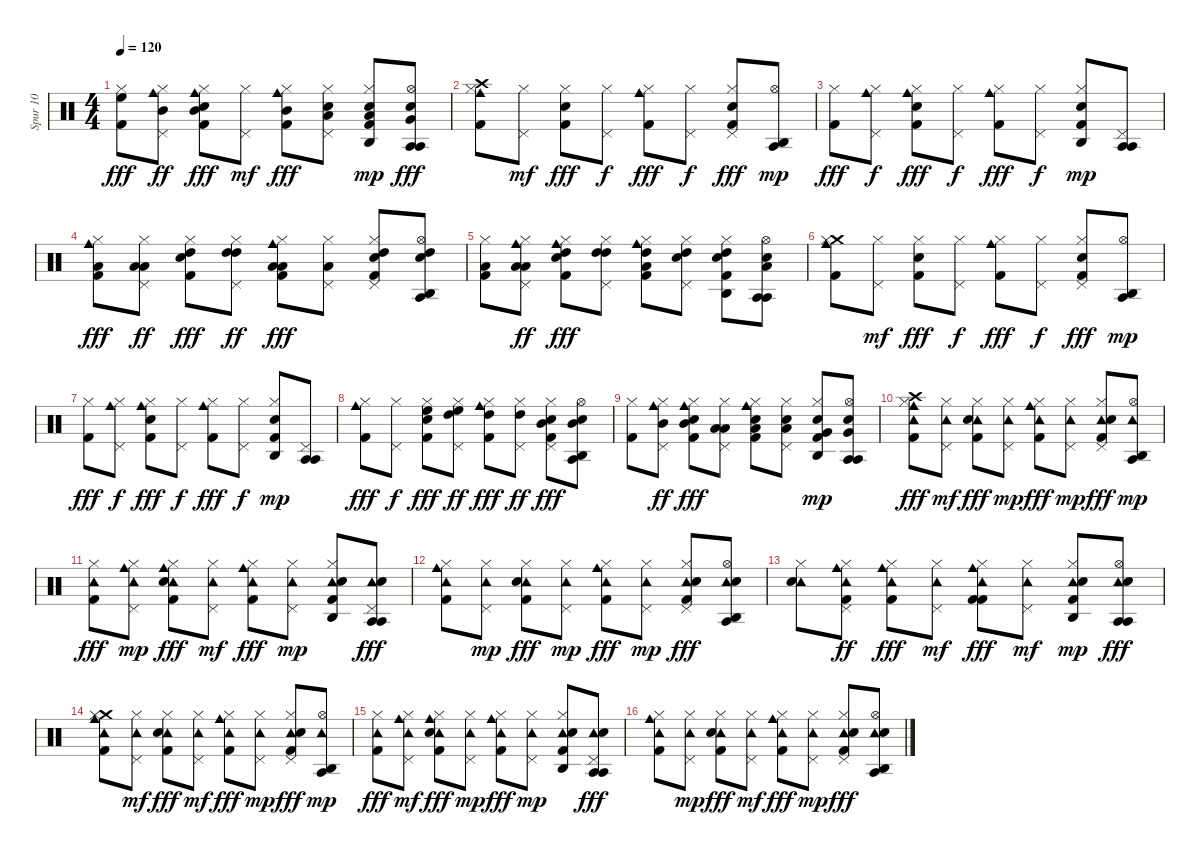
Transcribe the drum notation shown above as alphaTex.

\track ("Spur 10" "Spur 10") {instrument percussion}
\staff {score}
\articulation defaults
\ts (4 4)
\tempo 120
\clef neutral
\ks c
("High Floor Tom (hit)" "Kick (hit) 2" "Hi-Hat (closed)").8{dy fff} ("Cowbell medium (hit)" "Hi-Hat (closed)" "Mid Tom (hit)" "Pedal Hi-Hat (hit)").8{dy ff} ("Electric Snare (hit)" "Kick (hit) 2" "Hi-Hat (closed)" "Cowbell medium (hit)" "Mid Tom (hit)").8{dy fff} ("Hi-Hat (closed)" "Pedal Hi-Hat (hit)").8{dy mf} ("Cowbell medium (hit)" "Mid Tom (hit)" "Hi-Hat (closed)" "Kick (hit) 2").8{dy fff} ("Hi-Hat (closed)" "Low Tom (hit)" "Pedal Hi-Hat (hit)" "Electric Snare (hit)").8 ("Low Tom (hit)" "Hi-Hat (closed)" "Kick (hit) 2" "Electric Snare (hit)" "Agogo high (hit)").8{dy mp} ("Agogo tow (hit)" "Hi-Hat (open)" "Very Low Tom (hit)" "Agogo tow (hit)" "Electric Snare (hit)").8{dy fff} |
("Cowbell medium (hit)" "Crash high (hit)" "Hi-Hat (closed)" "Kick (hit) 2").8 ("Hi-Hat (closed)" "Pedal Hi-Hat (hit)").8{dy mf} ("Electric Snare (hit)" "Kick (hit) 2" "Hi-Hat (closed)").8{dy fff} ("Hi-Hat (closed)" "Pedal Hi-Hat (hit)").8{dy f} ("Cowbell medium (hit)" "Kick (hit) 2" "Hi-Hat (closed)").8{dy fff} ("Hi-Hat (closed)" "Pedal Hi-Hat (hit)").8{dy f} ("Kick (hit) 2" "Electric Snare (hit)" "Hi-Hat (closed)" "Pedal Hi-Hat (hit)").8{dy fff} ("Agogo high (hit)" "Hi-Hat (open)" "Agogo tow (hit)").8{dy mp} |
("Kick (hit) 2" "Hi-Hat (closed)").8{dy fff} ("Cowbell medium (hit)" "Hi-Hat (closed)" "Pedal Hi-Hat (hit)").8{dy f} ("Hi-Hat (closed)" "Kick (hit) 2" "Electric Snare (hit)" "Cowbell medium (hit)").8{dy fff} ("Hi-Hat (closed)" "Pedal Hi-Hat (hit)").8{dy f} ("Cowbell medium (hit)" "Kick (hit) 2" "Hi-Hat (closed)").8{dy fff} ("Hi-Hat (closed)" "Pedal Hi-Hat (hit)").8{dy f} ("Electric Snare (hit)" "Kick (hit) 2" "Hi-Hat (closed)" "Agogo high (hit)").8{dy mp} ("Agogo tow (hit)" "Pedal Hi-Hat (hit)" "Agogo tow (hit)").8 |
("Cowbell medium (hit)" "Kick (hit) 2" "Hi-Hat (closed)" "Low Tom (hit)").8{dy fff} ("Hi-Hat (closed)" "Low Tom (hit)" "Low Tom (hit)" "Pedal Hi-Hat (hit)").8{dy ff} ("Electric Snare (hit)" "Kick (hit) 2" "Hi-Hat (closed)" "High Tom (hit)").8{dy fff} ("High Tom (hit)" "Hi-Hat (closed)" "High Tom (hit)" "Pedal Hi-Hat (hit)").8{dy ff} ("Cowbell medium (hit)" "Low Tom (hit)" "Hi-Hat (closed)" "Kick (hit) 2" "Low Tom (hit)").8{dy fff} ("Hi-Hat (closed)" "Low Tom (hit)" "Pedal Hi-Hat (hit)").8 ("High Tom (hit)" "Kick (hit) 2" "Electric Snare (hit)" "Hi-Hat (closed)" "Pedal Hi-Hat (hit)").8 ("Agogo high (hit)" "High Tom (hit)" "Hi-Hat (open)" "Agogo tow (hit)" "Electric Snare (hit)").8 |
("Low Tom (hit)" "Kick (hit) 2" "Hi-Hat (closed)").8 ("Cowbell medium (hit)" "Low Tom (hit)" "Hi-Hat (closed)" "Low Tom (hit)" "Pedal Hi-Hat (hit)").8{dy ff} ("Electric Snare (hit)" "Kick (hit) 2" "Hi-Hat (closed)" "High Tom (hit)" "Cowbell medium (hit)").8{dy fff} ("Hi-Hat (closed)" "High Tom (hit)" "High Tom (hit)" "Pedal Hi-Hat (hit)").8 ("Cowbell medium (hit)" "Low Tom (hit)" "Hi-Hat (closed)" "Kick (hit) 2" "High Tom (hit)").8 ("Hi-Hat (closed)" "Pedal Hi-Hat (hit)" "Electric Snare (hit)" "High Tom (hit)").8 ("Hi-Hat (closed)" "Kick (hit) 2" "Electric Snare (hit)" "Agogo high (hit)" "High Tom (hit)").8 ("Agogo tow (hit)" "Low Tom (hit)" "Hi-Hat (open)" "Agogo tow (hit)" "Electric Snare (hit)").8 |
("Cowbell medium (hit)" "Crash medium (hit)" "Hi-Hat (closed)" "Kick (hit) 2").8 ("Hi-Hat (closed)" "Pedal Hi-Hat (hit)").8{dy mf} ("Electric Snare (hit)" "Kick (hit) 2" "Hi-Hat (closed)").8{dy fff} ("Hi-Hat (closed)" "Pedal Hi-Hat (hit)").8{dy f} ("Cowbell medium (hit)" "Kick (hit) 2" "Hi-Hat (closed)").8{dy fff} ("Hi-Hat (closed)" "Pedal Hi-Hat (hit)").8{dy f} ("Kick (hit) 2" "Electric Snare (hit)" "Hi-Hat (closed)" "Pedal Hi-Hat (hit)").8{dy fff} ("Agogo high (hit)" "Hi-Hat (open)" "Agogo tow (hit)").8{dy mp} |
("Kick (hit) 2" "Hi-Hat (closed)").8{dy fff} ("Cowbell medium (hit)" "Hi-Hat (closed)" "Pedal Hi-Hat (hit)").8{dy f} ("Hi-Hat (closed)" "Kick (hit) 2" "Electric Snare (hit)" "Cowbell medium (hit)").8{dy fff} ("Hi-Hat (closed)" "Pedal Hi-Hat (hit)").8{dy f} ("Cowbell medium (hit)" "Kick (hit) 2" "Hi-Hat (closed)").8{dy fff} ("Hi-Hat (closed)" "Pedal Hi-Hat (hit)").8{dy f} ("Electric Snare (hit)" "Kick (hit) 2" "Hi-Hat (closed)" "Agogo high (hit)").8{dy mp} ("Agogo tow (hit)" "Pedal Hi-Hat (hit)" "Agogo tow (hit)").8 |
("Cowbell medium (hit)" "Kick (hit) 2" "Hi-Hat (closed)").8{dy fff} ("Hi-Hat (closed)" "Pedal Hi-Hat (hit)").8{dy f} ("Electric Snare (hit)" "Kick (hit) 2" "Hi-Hat (closed)" "High Floor Tom (hit)").8{dy fff} ("Hi-Hat (closed)" "High Floor Tom (hit)" "Pedal Hi-Hat (hit)" "High Tom (hit)").8{dy ff} ("Cowbell medium (hit)" "Hi-Hat (closed)" "Kick (hit) 2" "High Tom (hit)").8{dy fff} ("Hi-Hat (closed)" "High Tom (hit)" "Pedal Hi-Hat (hit)").8{dy ff} ("Mid Tom (hit)" "Kick (hit) 2" "Electric Snare (hit)" "Hi-Hat (closed)" "Pedal Hi-Hat (hit)").8{dy fff} ("Agogo high (hit)" "Mid Tom (hit)" "Hi-Hat (open)" "Agogo tow (hit)" "Electric Snare (hit)").8 |
("Kick (hit) 2" "Hi-Hat (closed)").8 ("Cowbell medium (hit)" "Mid Tom (hit)" "Hi-Hat (closed)" "Pedal Hi-Hat (hit)").8{dy ff} ("Electric Snare (hit)" "Kick (hit) 2" "Hi-Hat (closed)" "Mid Tom (hit)" "Cowbell medium (hit)").8{dy fff} ("Hi-Hat (closed)" "Low Tom (hit)" "Pedal Hi-Hat (hit)" "Low Tom (hit)").8 ("Cowbell medium (hit)" "Electric Snare (hit)" "Hi-Hat (closed)" "Kick (hit) 2" "Low Tom (hit)").8 ("Hi-Hat (closed)" "Low Tom (hit)" "Pedal Hi-Hat (hit)" "Electric Snare (hit)").8 ("Very Low Tom (hit)" "Hi-Hat (closed)" "Kick (hit) 2" "Electric Snare (hit)" "Agogo high (hit)").8{dy mp} ("Agogo tow (hit)" "Very Low Tom (hit)" "Electric Snare (hit)" "Hi-Hat (open)" "Agogo tow (hit)").8 |
("Tambourine (hit)" "Cowbell medium (hit)" "Crash high (hit)" "Hi-Hat (closed)" "Kick (hit) 2").8{dy fff} ("Tambourine (hit)" "Hi-Hat (closed)" "Pedal Hi-Hat (hit)").8{dy mf} ("Tambourine (hit)" "Electric Snare (hit)" "Kick (hit) 2" "Hi-Hat (closed)").8{dy fff} ("Tambourine (hit)" "Hi-Hat (closed)" "Pedal Hi-Hat (hit)").8{dy mp} ("Tambourine (hit)" "Cowbell medium (hit)" "Kick (hit) 2" "Hi-Hat (closed)").8{dy fff} ("Tambourine (hit)" "Hi-Hat (closed)" "Pedal Hi-Hat (hit)").8{dy mp} ("Tambourine (hit)" "Kick (hit) 2" "Electric Snare (hit)" "Hi-Hat (closed)" "Pedal Hi-Hat (hit)").8{dy fff} ("Agogo high (hit)" "Tambourine (hit)" "Hi-Hat (open)" "Agogo tow (hit)").8{dy mp} |
("Tambourine (hit)" "Kick (hit) 2" "Hi-Hat (closed)").8{dy fff} ("Cowbell medium (hit)" "Tambourine (hit)" "Hi-Hat (closed)" "Pedal Hi-Hat (hit)").8{dy mp} ("Tambourine (hit)" "Hi-Hat (closed)" "Kick (hit) 2" "Electric Snare (hit)" "Cowbell medium (hit)").8{dy fff} ("Tambourine (hit)" "Hi-Hat (closed)" "Pedal Hi-Hat (hit)").8{dy mf} ("Cowbell medium (hit)" "Tambourine (hit)" "Kick (hit) 2" "Hi-Hat (closed)").8{dy fff} ("Tambourine (hit)" "Hi-Hat (closed)" "Pedal Hi-Hat (hit)").8{dy mp} ("Tambourine (hit)" "Electric Snare (hit)" "Kick (hit) 2" "Hi-Hat (closed)" "Agogo high (hit)").8 ("Agogo tow (hit)" "Tambourine (hit)" "Pedal Hi-Hat (hit)" "Agogo tow (hit)" "Electric Snare (hit)").8{dy fff} |
("Cowbell medium (hit)" "Tambourine (hit)" "Kick (hit) 2" "Hi-Hat (closed)").8 ("Tambourine (hit)" "Hi-Hat (closed)" "Pedal Hi-Hat (hit)").8{dy mp} ("Tambourine (hit)" "Electric Snare (hit)" "Kick (hit) 2" "Hi-Hat (closed)").8{dy fff} ("Tambourine (hit)" "Hi-Hat (closed)" "Pedal Hi-Hat (hit)").8{dy mp} ("Cowbell medium (hit)" "Tambourine (hit)" "Hi-Hat (closed)" "Kick (hit) 2").8{dy fff} ("Tambourine (hit)" "Hi-Hat (closed)" "Pedal Hi-Hat (hit)").8{dy mp} ("Tambourine (hit)" "Kick (hit) 2" "Electric Snare (hit)" "Hi-Hat (closed)" "Pedal Hi-Hat (hit)").8{dy fff} ("Agogo high (hit)" "Tambourine (hit)" "Hi-Hat (open)" "Agogo tow (hit)" "Electric Snare (hit)").8 |
("Tambourine (hit)" "Electric Snare (hit)" "Hi-Hat (closed)").8 ("Tambourine (hit)" "Cowbell medium (hit)" "Hi-Hat (closed)" "Kick (hit) 2" "Pedal Hi-Hat (hit)").8{dy ff} ("Tambourine (hit)" "Hi-Hat (closed)" "Cowbell medium (hit)" "Kick (hit) 2").8{dy fff} ("Tambourine (hit)" "Hi-Hat (closed)" "Pedal Hi-Hat (hit)").8{dy mf} ("Tambourine (hit)" "Cowbell medium (hit)" "Kick (hit) 2" "Hi-Hat (closed)" "Kick (hit) 2").8{dy fff} ("Tambourine (hit)" "Hi-Hat (closed)" "Pedal Hi-Hat (hit)").8{dy mf} ("Tambourine (hit)" "Hi-Hat (closed)" "Kick (hit) 2" "Electric Snare (hit)" "Agogo high (hit)").8{dy mp} ("Agogo tow (hit)" "Tambourine (hit)" "Hi-Hat (open)" "Agogo tow (hit)" "Electric Snare (hit)").8{dy fff} |
("Tambourine (hit)" "Cowbell medium (hit)" "Crash medium (hit)" "Hi-Hat (closed)" "Kick (hit) 2").8 ("Tambourine (hit)" "Hi-Hat (closed)" "Pedal Hi-Hat (hit)").8{dy mf} ("Tambourine (hit)" "Electric Snare (hit)" "Kick (hit) 2" "Hi-Hat (closed)").8{dy fff} ("Tambourine (hit)" "Hi-Hat (closed)" "Pedal Hi-Hat (hit)").8{dy mf} ("Tambourine (hit)" "Cowbell medium (hit)" "Kick (hit) 2" "Hi-Hat (closed)").8{dy fff} ("Tambourine (hit)" "Hi-Hat (closed)" "Pedal Hi-Hat (hit)").8{dy mp} ("Tambourine (hit)" "Kick (hit) 2" "Electric Snare (hit)" "Hi-Hat (closed)" "Pedal Hi-Hat (hit)").8{dy fff} ("Agogo high (hit)" "Tambourine (hit)" "Hi-Hat (open)" "Agogo tow (hit)").8{dy mp} |
("Tambourine (hit)" "Kick (hit) 2" "Hi-Hat (closed)").8{dy fff} ("Cowbell medium (hit)" "Tambourine (hit)" "Hi-Hat (closed)" "Pedal Hi-Hat (hit)").8{dy mf} ("Tambourine (hit)" "Hi-Hat (closed)" "Kick (hit) 2" "Electric Snare (hit)" "Cowbell medium (hit)").8{dy fff} ("Tambourine (hit)" "Hi-Hat (closed)" "Pedal Hi-Hat (hit)").8{dy mp} ("Cowbell medium (hit)" "Tambourine (hit)" "Kick (hit) 2" "Hi-Hat (closed)").8{dy fff} ("Tambourine (hit)" "Hi-Hat (closed)" "Pedal Hi-Hat (hit)").8{dy mp} ("Tambourine (hit)" "Electric Snare (hit)" "Kick (hit) 2" "Hi-Hat (closed)" "Agogo high (hit)").8 ("Agogo tow (hit)" "Tambourine (hit)" "Pedal Hi-Hat (hit)" "Agogo tow (hit)" "Electric Snare (hit)").8{dy fff} |
("Tambourine (hit)" "Cowbell medium (hit)" "Kick (hit) 2" "Hi-Hat (closed)").8 ("Tambourine (hit)" "Hi-Hat (closed)" "Pedal Hi-Hat (hit)").8{dy mp} ("Tambourine (hit)" "Electric Snare (hit)" "Kick (hit) 2" "Hi-Hat (closed)").8{dy fff} ("Tambourine (hit)" "Hi-Hat (closed)" "Pedal Hi-Hat (hit)").8{dy mf} ("Tambourine (hit)" "Cowbell medium (hit)" "Hi-Hat (closed)" "Kick (hit) 2").8{dy fff} ("Tambourine (hit)" "Hi-Hat (closed)" "Pedal Hi-Hat (hit)").8{dy mp} ("Tambourine (hit)" "Kick (hit) 2" "Electric Snare (hit)" "Hi-Hat (closed)" "Pedal Hi-Hat (hit)").8{dy fff} ("Agogo high (hit)" "Tambourine (hit)" "Hi-Hat (open)" "Agogo tow (hit)" "Electric Snare (hit)").8
